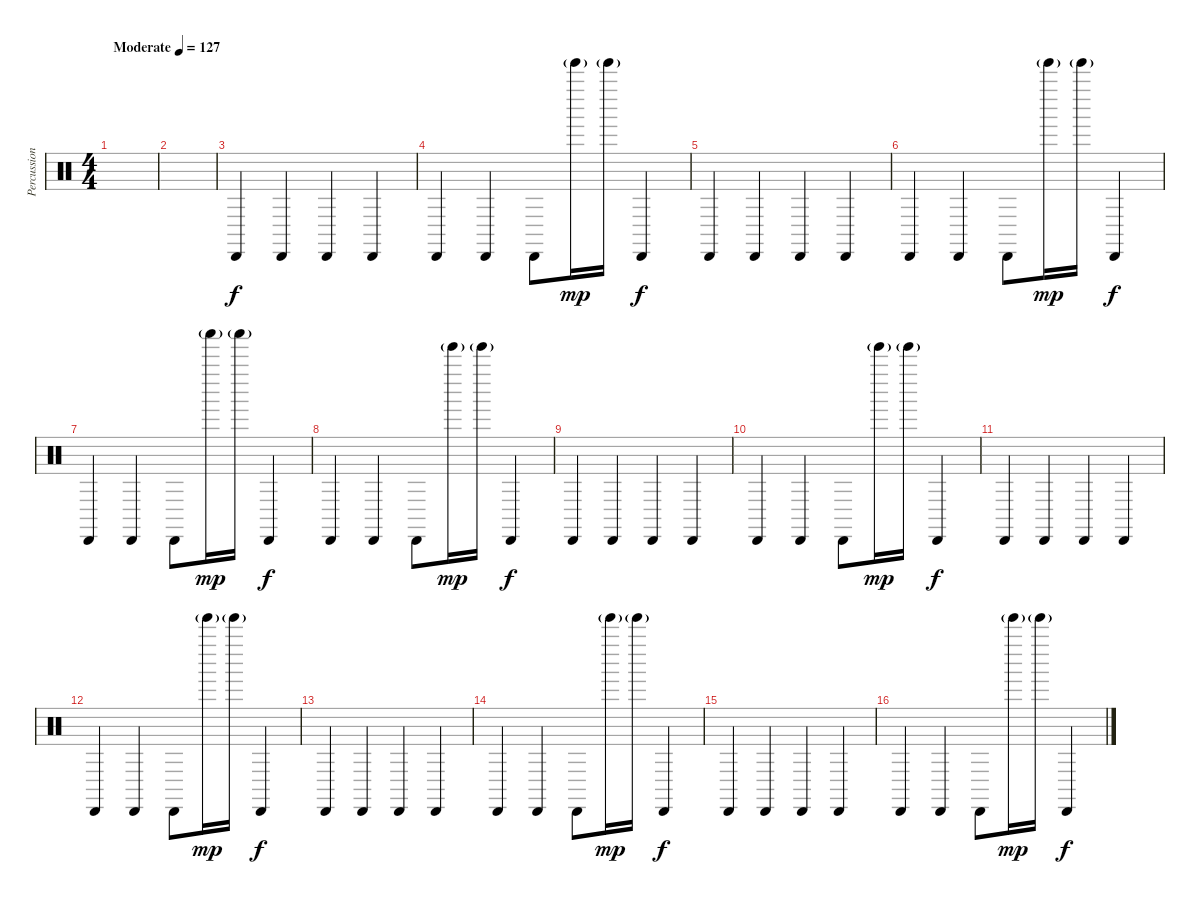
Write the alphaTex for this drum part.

\track ("Percussion" "Percussion") {instrument percussion}
\staff {score}
\articulation defaults
\ts (4 4)
\tempo (127 "Moderate")
\clef neutral
\ks c
|
|
"Cabasa (hit)".4 "Cabasa (hit)".4 "Cabasa (hit)".4 "Cabasa (hit)".4 |
"Cabasa (hit)".4 "Cabasa (hit)".4 "Cabasa (hit)".8 "Tinkle Bell (hit)"{g}.16{dy mp} "Tinkle Bell (hit)"{g}.16 "Cabasa (hit)".4{dy f} |
"Cabasa (hit)".4 "Cabasa (hit)".4 "Cabasa (hit)".4 "Cabasa (hit)".4 |
"Cabasa (hit)".4 "Cabasa (hit)".4 "Cabasa (hit)".8 "Tinkle Bell (hit)"{g}.16{dy mp} "Tinkle Bell (hit)"{g}.16 "Cabasa (hit)".4{dy f} |
"Cabasa (hit)".4 "Cabasa (hit)".4 "Cabasa (hit)".8 "Shaker (hit)"{g}.16{dy mp} "Shaker (hit)"{g}.16 "Cabasa (hit)".4{dy f} |
"Cabasa (hit)".4 "Cabasa (hit)".4 "Cabasa (hit)".8 "Tinkle Bell (hit)"{g}.16{dy mp} "Tinkle Bell (hit)"{g}.16 "Cabasa (hit)".4{dy f} |
"Cabasa (hit)".4 "Cabasa (hit)".4 "Cabasa (hit)".4 "Cabasa (hit)".4 |
"Cabasa (hit)".4 "Cabasa (hit)".4 "Cabasa (hit)".8 "Tinkle Bell (hit)"{g}.16{dy mp} "Tinkle Bell (hit)"{g}.16 "Cabasa (hit)".4{dy f} |
"Cabasa (hit)".4 "Cabasa (hit)".4 "Cabasa (hit)".4 "Cabasa (hit)".4 |
"Cabasa (hit)".4 "Cabasa (hit)".4 "Cabasa (hit)".8 "Tinkle Bell (hit)"{g}.16{dy mp} "Tinkle Bell (hit)"{g}.16 "Cabasa (hit)".4{dy f} |
"Cabasa (hit)".4 "Cabasa (hit)".4 "Cabasa (hit)".4 "Cabasa (hit)".4 |
"Cabasa (hit)".4 "Cabasa (hit)".4 "Cabasa (hit)".8 "Tinkle Bell (hit)"{g}.16{dy mp} "Tinkle Bell (hit)"{g}.16 "Cabasa (hit)".4{dy f} |
"Cabasa (hit)".4 "Cabasa (hit)".4 "Cabasa (hit)".4 "Cabasa (hit)".4 |
"Cabasa (hit)".4 "Cabasa (hit)".4 "Cabasa (hit)".8 "Tinkle Bell (hit)"{g}.16{dy mp} "Tinkle Bell (hit)"{g}.16 "Cabasa (hit)".4{dy f}
